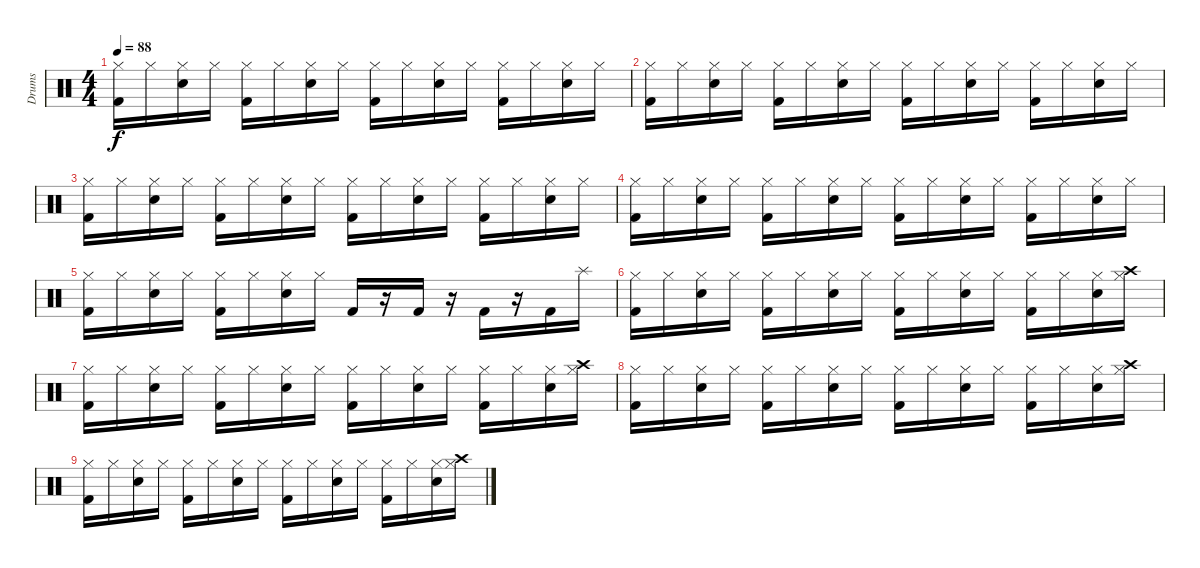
\track ("Drums" "Drums") {instrument percussion}
\staff {score}
\articulation defaults
\ts (4 4)
\tempo 88
\clef neutral
\ks c
("Hi-Hat (closed)" "Kick (hit) 2").16{dy f} "Hi-Hat (closed)".16 ("Hi-Hat (closed)" "Electric Snare (hit)").16 "Hi-Hat (closed)".16 ("Hi-Hat (closed)" "Kick (hit) 2").16 "Hi-Hat (closed)".16 ("Hi-Hat (closed)" "Electric Snare (hit)").16 "Hi-Hat (closed)".16 ("Hi-Hat (closed)" "Kick (hit) 2").16 "Hi-Hat (closed)".16 ("Hi-Hat (closed)" "Electric Snare (hit)").16 "Hi-Hat (closed)".16 ("Hi-Hat (closed)" "Kick (hit) 2").16 "Hi-Hat (closed)".16 ("Hi-Hat (closed)" "Electric Snare (hit)").16 "Hi-Hat (closed)".16 |
("Hi-Hat (closed)" "Kick (hit) 2").16 "Hi-Hat (closed)".16 ("Hi-Hat (closed)" "Electric Snare (hit)").16 "Hi-Hat (closed)".16 ("Hi-Hat (closed)" "Kick (hit) 2").16 "Hi-Hat (closed)".16 ("Hi-Hat (closed)" "Electric Snare (hit)").16 "Hi-Hat (closed)".16 ("Hi-Hat (closed)" "Kick (hit) 2").16 "Hi-Hat (closed)".16 ("Hi-Hat (closed)" "Electric Snare (hit)").16 "Hi-Hat (closed)".16 ("Hi-Hat (closed)" "Kick (hit) 2").16 "Hi-Hat (closed)".16 ("Hi-Hat (closed)" "Electric Snare (hit)").16 "Hi-Hat (closed)".16 |
("Hi-Hat (closed)" "Kick (hit) 2").16 "Hi-Hat (closed)".16 ("Hi-Hat (closed)" "Electric Snare (hit)").16 "Hi-Hat (closed)".16 ("Hi-Hat (closed)" "Kick (hit) 2").16 "Hi-Hat (closed)".16 ("Hi-Hat (closed)" "Electric Snare (hit)").16 "Hi-Hat (closed)".16 ("Hi-Hat (closed)" "Kick (hit) 2").16 "Hi-Hat (closed)".16 ("Hi-Hat (closed)" "Electric Snare (hit)").16 "Hi-Hat (closed)".16 ("Hi-Hat (closed)" "Kick (hit) 2").16 "Hi-Hat (closed)".16 ("Hi-Hat (closed)" "Electric Snare (hit)").16 "Hi-Hat (closed)".16 |
("Hi-Hat (closed)" "Kick (hit) 2").16 "Hi-Hat (closed)".16 ("Hi-Hat (closed)" "Electric Snare (hit)").16 "Hi-Hat (closed)".16 ("Hi-Hat (closed)" "Kick (hit) 2").16 "Hi-Hat (closed)".16 ("Hi-Hat (closed)" "Electric Snare (hit)").16 "Hi-Hat (closed)".16 ("Hi-Hat (closed)" "Kick (hit) 2").16 "Hi-Hat (closed)".16 ("Hi-Hat (closed)" "Electric Snare (hit)").16 "Hi-Hat (closed)".16 ("Hi-Hat (closed)" "Kick (hit) 2").16 "Hi-Hat (closed)".16 ("Hi-Hat (closed)" "Electric Snare (hit)").16 "Hi-Hat (closed)".16 |
("Hi-Hat (closed)" "Kick (hit) 2").16 "Hi-Hat (closed)".16 ("Hi-Hat (closed)" "Electric Snare (hit)").16 "Hi-Hat (closed)".16 ("Hi-Hat (closed)" "Kick (hit) 2").16 "Hi-Hat (closed)".16 ("Hi-Hat (closed)" "Electric Snare (hit)").16 "Hi-Hat (closed)".16 "Kick (hit) 2".16 r.16 "Kick (hit) 2".16 r.16 "Kick (hit) 2".16 r.16 "Kick (hit) 2".16 "Splash (hit)".16 |
("Hi-Hat (closed)" "Kick (hit) 2").16 "Hi-Hat (closed)".16 ("Hi-Hat (closed)" "Electric Snare (hit)").16 "Hi-Hat (closed)".16 ("Hi-Hat (closed)" "Kick (hit) 2").16 "Hi-Hat (closed)".16 ("Hi-Hat (closed)" "Electric Snare (hit)").16 "Hi-Hat (closed)".16 ("Hi-Hat (closed)" "Kick (hit) 2").16 "Hi-Hat (closed)".16 ("Hi-Hat (closed)" "Electric Snare (hit)").16 "Hi-Hat (closed)".16 ("Hi-Hat (closed)" "Kick (hit) 2").16 "Hi-Hat (closed)".16 ("Hi-Hat (closed)" "Electric Snare (hit)").16 ("Crash high (hit)" "Hi-Hat (closed)").16 |
("Hi-Hat (closed)" "Kick (hit) 2").16 "Hi-Hat (closed)".16 ("Hi-Hat (closed)" "Electric Snare (hit)").16 "Hi-Hat (closed)".16 ("Hi-Hat (closed)" "Kick (hit) 2").16 "Hi-Hat (closed)".16 ("Hi-Hat (closed)" "Electric Snare (hit)").16 "Hi-Hat (closed)".16 ("Hi-Hat (closed)" "Kick (hit) 2").16 "Hi-Hat (closed)".16 ("Hi-Hat (closed)" "Electric Snare (hit)").16 "Hi-Hat (closed)".16 ("Hi-Hat (closed)" "Kick (hit) 2").16 "Hi-Hat (closed)".16 ("Hi-Hat (closed)" "Electric Snare (hit)").16 ("Crash high (hit)" "Hi-Hat (closed)").16 |
("Hi-Hat (closed)" "Kick (hit) 2").16 "Hi-Hat (closed)".16 ("Hi-Hat (closed)" "Electric Snare (hit)").16 "Hi-Hat (closed)".16 ("Hi-Hat (closed)" "Kick (hit) 2").16 "Hi-Hat (closed)".16 ("Hi-Hat (closed)" "Electric Snare (hit)").16 "Hi-Hat (closed)".16 ("Hi-Hat (closed)" "Kick (hit) 2").16 "Hi-Hat (closed)".16 ("Hi-Hat (closed)" "Electric Snare (hit)").16 "Hi-Hat (closed)".16 ("Hi-Hat (closed)" "Kick (hit) 2").16 "Hi-Hat (closed)".16 ("Hi-Hat (closed)" "Electric Snare (hit)").16 ("Crash high (hit)" "Hi-Hat (closed)").16 |
("Hi-Hat (closed)" "Kick (hit) 2").16 "Hi-Hat (closed)".16 ("Hi-Hat (closed)" "Electric Snare (hit)").16 "Hi-Hat (closed)".16 ("Hi-Hat (closed)" "Kick (hit) 2").16 "Hi-Hat (closed)".16 ("Hi-Hat (closed)" "Electric Snare (hit)").16 "Hi-Hat (closed)".16 ("Hi-Hat (closed)" "Kick (hit) 2").16 "Hi-Hat (closed)".16 ("Hi-Hat (closed)" "Electric Snare (hit)").16 "Hi-Hat (closed)".16 ("Hi-Hat (closed)" "Kick (hit) 2").16 "Hi-Hat (closed)".16 ("Hi-Hat (closed)" "Electric Snare (hit)").16 ("Crash high (hit)" "Hi-Hat (closed)").16
